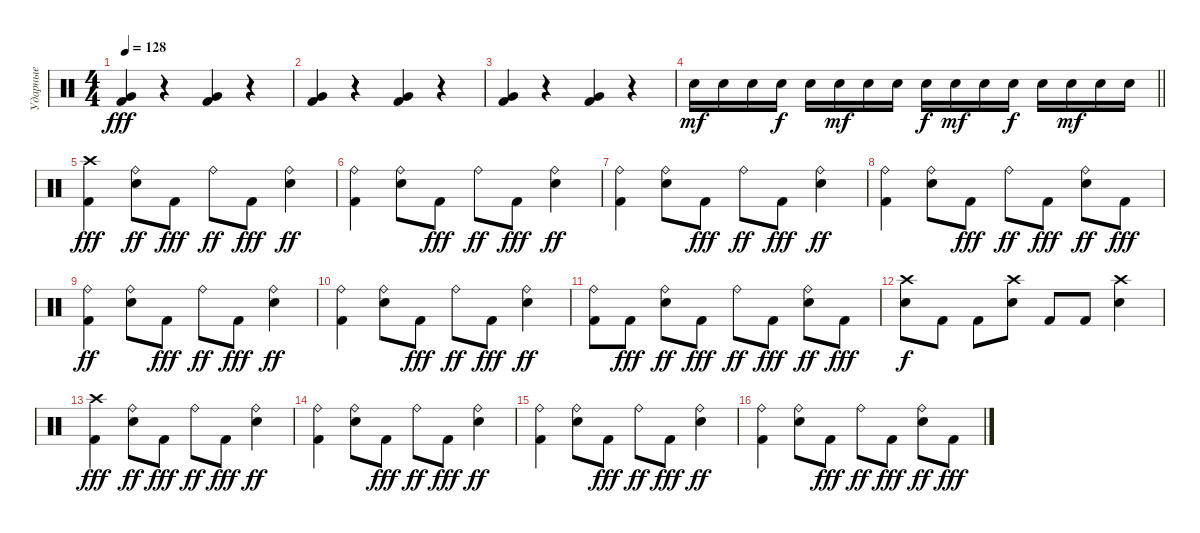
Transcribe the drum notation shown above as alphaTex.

\track ("Ударные" "Ударные") {instrument percussion}
\staff {score}
\articulation defaults
\ts (4 4)
\tempo 128
\clef neutral
\ks c
("Kick (hit) 2" "Very Low Tom (hit)").4{dy fff} r.4 ("Kick (hit) 2" "Very Low Tom (hit)").4 r.4 |
("Kick (hit) 2" "Very Low Tom (hit)").4 r.4 ("Kick (hit) 2" "Very Low Tom (hit)").4 r.4 |
("Kick (hit) 2" "Very Low Tom (hit)").4 r.4 ("Kick (hit) 2" "Very Low Tom (hit)").4 r.4 |
\barLineRight lightlight "Snare (hit) 2".16{dy mf} "Snare (hit) 2".16 "Snare (hit) 2".16 "Snare (hit) 2".16{dy f} "Snare (hit) 2".16 "Snare (hit) 2".16{dy mf} "Snare (hit) 2".16 "Snare (hit) 2".16 "Snare (hit) 2".16{dy f} "Snare (hit) 2".16{dy mf} "Snare (hit) 2".16 "Snare (hit) 2".16{dy f} "Snare (hit) 2".16 "Snare (hit) 2".16{dy mf} "Snare (hit) 2".16 "Snare (hit) 2".16
|
("Kick (hit) 2" "Crash high (hit)").4{dy fff} ("Snare (hit) 2" "Ride (bell)").8{dy ff} "Kick (hit) 2".8{dy fff} "Ride (bell)".8{dy ff} "Kick (hit) 2".8{dy fff} ("Snare (hit) 2" "Ride (bell)").4{dy ff} |
("Kick (hit) 2" "Ride (bell)").4 ("Snare (hit) 2" "Ride (bell)").8 "Kick (hit) 2".8{dy fff} "Ride (bell)".8{dy ff} "Kick (hit) 2".8{dy fff} ("Snare (hit) 2" "Ride (bell)").4{dy ff} |
("Kick (hit) 2" "Ride (bell)").4 ("Snare (hit) 2" "Ride (bell)").8 "Kick (hit) 2".8{dy fff} "Ride (bell)".8{dy ff} "Kick (hit) 2".8{dy fff} ("Snare (hit) 2" "Ride (bell)").4{dy ff} |
("Kick (hit) 2" "Ride (bell)").4 ("Snare (hit) 2" "Ride (bell)").8 "Kick (hit) 2".8{dy fff} "Ride (bell)".8{dy ff} "Kick (hit) 2".8{dy fff} ("Snare (hit) 2" "Ride (bell)").8{dy ff} "Kick (hit) 2".8{dy fff} |
("Kick (hit) 2" "Ride (bell)").4{dy ff} ("Snare (hit) 2" "Ride (bell)").8 "Kick (hit) 2".8{dy fff} "Ride (bell)".8{dy ff} "Kick (hit) 2".8{dy fff} ("Snare (hit) 2" "Ride (bell)").4{dy ff} |
("Kick (hit) 2" "Ride (bell)").4 ("Snare (hit) 2" "Ride (bell)").8 "Kick (hit) 2".8{dy fff} "Ride (bell)".8{dy ff} "Kick (hit) 2".8{dy fff} ("Snare (hit) 2" "Ride (bell)").4{dy ff} |
("Kick (hit) 2" "Ride (bell)").8 "Kick (hit) 2".8{dy fff} ("Snare (hit) 2" "Ride (bell)").8{dy ff} "Kick (hit) 2".8{dy fff} "Ride (bell)".8{dy ff} "Kick (hit) 2".8{dy fff} ("Snare (hit) 2" "Ride (bell)").8{dy ff} "Kick (hit) 2".8{dy fff} |
("Snare (hit) 2" "Crash high (hit)").8{dy f} "Kick (hit) 2".8 "Kick (hit) 2".8 ("Snare (hit) 2" "Crash high (hit)").8 "Kick (hit) 2".8 "Kick (hit) 2".8 ("Snare (hit) 2" "Crash high (hit)").4 |
("Kick (hit) 2" "Crash high (hit)").4{dy fff} ("Snare (hit) 2" "Ride (bell)").8{dy ff} "Kick (hit) 2".8{dy fff} "Ride (bell)".8{dy ff} "Kick (hit) 2".8{dy fff} ("Snare (hit) 2" "Ride (bell)").4{dy ff} |
("Kick (hit) 2" "Ride (bell)").4 ("Snare (hit) 2" "Ride (bell)").8 "Kick (hit) 2".8{dy fff} "Ride (bell)".8{dy ff} "Kick (hit) 2".8{dy fff} ("Snare (hit) 2" "Ride (bell)").4{dy ff} |
("Kick (hit) 2" "Ride (bell)").4 ("Snare (hit) 2" "Ride (bell)").8 "Kick (hit) 2".8{dy fff} "Ride (bell)".8{dy ff} "Kick (hit) 2".8{dy fff} ("Snare (hit) 2" "Ride (bell)").4{dy ff} |
("Kick (hit) 2" "Ride (bell)").4 ("Snare (hit) 2" "Ride (bell)").8 "Kick (hit) 2".8{dy fff} "Ride (bell)".8{dy ff} "Kick (hit) 2".8{dy fff} ("Snare (hit) 2" "Ride (bell)").8{dy ff} "Kick (hit) 2".8{dy fff}
